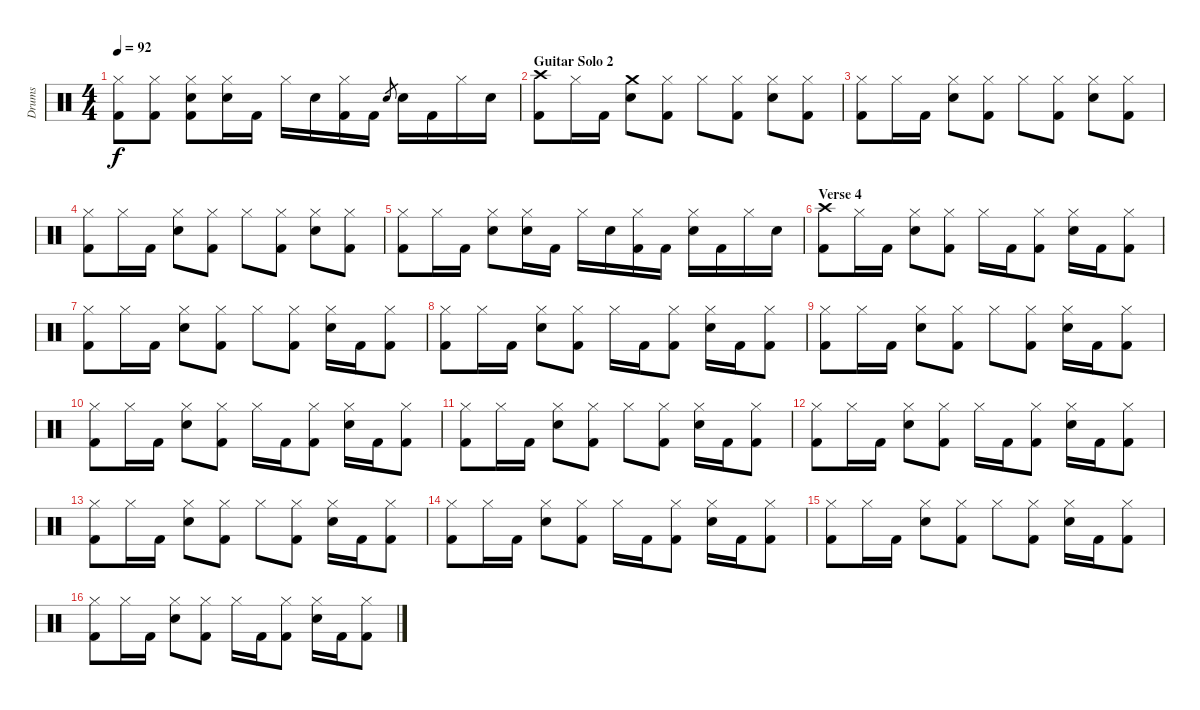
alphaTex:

\track ("Drums" "Drums") {instrument percussion}
\staff {score}
\articulation defaults
\ts (4 4)
\tempo 92
\clef neutral
\ks c
("Hi-Hat (closed)" "Kick (hit) 2").8{dy f} ("Hi-Hat (closed)" "Kick (hit) 2").8 ("Hi-Hat (closed)" "Electric Snare (hit)" "Kick (hit) 2").8 ("Hi-Hat (closed)" "Electric Snare (hit)").16 "Kick (hit) 2".16 "Hi-Hat (closed)".16 "Electric Snare (hit)".16 ("Hi-Hat (closed)" "Kick (hit) 2").16 "Kick (hit) 2".16 "Electric Snare (hit)".8{gr} "Electric Snare (hit)".16 "Kick (hit) 2".16 "Hi-Hat (closed)".16 "Electric Snare (hit)".16 |
\section ("" "Guitar Solo 2")
("Crash high (hit)" "Kick (hit) 2").8 "Hi-Hat (closed)".16 "Kick (hit) 2".16 ("Crash medium (hit)" "Electric Snare (hit)").8 ("Hi-Hat (closed)" "Kick (hit) 2").8 "Hi-Hat (closed)".8 ("Hi-Hat (closed)" "Kick (hit) 2").8 ("Hi-Hat (closed)" "Electric Snare (hit)").8 ("Hi-Hat (closed)" "Kick (hit) 2").8 |
("Hi-Hat (closed)" "Kick (hit) 2").8 "Hi-Hat (closed)".16 "Kick (hit) 2".16 ("Hi-Hat (closed)" "Electric Snare (hit)").8 ("Hi-Hat (closed)" "Kick (hit) 2").8 "Hi-Hat (closed)".8 ("Hi-Hat (closed)" "Kick (hit) 2").8 ("Hi-Hat (closed)" "Electric Snare (hit)").8 ("Hi-Hat (closed)" "Kick (hit) 2").8 |
("Hi-Hat (closed)" "Kick (hit) 2").8 "Hi-Hat (closed)".16 "Kick (hit) 2".16 ("Hi-Hat (closed)" "Electric Snare (hit)").8 ("Hi-Hat (closed)" "Kick (hit) 2").8 "Hi-Hat (closed)".8 ("Hi-Hat (closed)" "Kick (hit) 2").8 ("Hi-Hat (closed)" "Electric Snare (hit)").8 ("Hi-Hat (closed)" "Kick (hit) 2").8 |
("Hi-Hat (closed)" "Kick (hit) 2").8 "Hi-Hat (closed)".16 "Kick (hit) 2".16 ("Hi-Hat (closed)" "Electric Snare (hit)").8 ("Hi-Hat (closed)" "Electric Snare (hit)").16 "Kick (hit) 2".16 "Hi-Hat (closed)".16 "Electric Snare (hit)".16 ("Hi-Hat (closed)" "Kick (hit) 2").16 "Kick (hit) 2".16 ("Hi-Hat (closed)" "Electric Snare (hit)").16 "Kick (hit) 2".16 "Hi-Hat (closed)".16 "Electric Snare (hit)".16 |
\section ("" "Verse 4")
("Crash high (hit)" "Kick (hit) 2").8 "Hi-Hat (closed)".16 "Kick (hit) 2".16 ("Hi-Hat (closed)" "Electric Snare (hit)").8 ("Hi-Hat (closed)" "Kick (hit) 2").8 "Hi-Hat (closed)".16 "Kick (hit) 2".16 ("Hi-Hat (closed)" "Kick (hit) 2").8 ("Hi-Hat (closed)" "Electric Snare (hit)").16 "Kick (hit) 2".16 ("Hi-Hat (closed)" "Kick (hit) 2").8 |
("Hi-Hat (closed)" "Kick (hit) 2").8 "Hi-Hat (closed)".16 "Kick (hit) 2".16 ("Hi-Hat (closed)" "Electric Snare (hit)").8 ("Hi-Hat (closed)" "Kick (hit) 2").8 "Hi-Hat (closed)".8 ("Hi-Hat (closed)" "Kick (hit) 2").8 ("Hi-Hat (closed)" "Electric Snare (hit)").16 "Kick (hit) 2".16 ("Hi-Hat (closed)" "Kick (hit) 2").8 |
("Hi-Hat (closed)" "Kick (hit) 2").8 "Hi-Hat (closed)".16 "Kick (hit) 2".16 ("Hi-Hat (closed)" "Electric Snare (hit)").8 ("Hi-Hat (closed)" "Kick (hit) 2").8 "Hi-Hat (closed)".16 "Kick (hit) 2".16 ("Hi-Hat (closed)" "Kick (hit) 2").8 ("Hi-Hat (closed)" "Electric Snare (hit)").16 "Kick (hit) 2".16 ("Hi-Hat (closed)" "Kick (hit) 2").8 |
("Hi-Hat (closed)" "Kick (hit) 2").8 "Hi-Hat (closed)".16 "Kick (hit) 2".16 ("Hi-Hat (closed)" "Electric Snare (hit)").8 ("Hi-Hat (closed)" "Kick (hit) 2").8 "Hi-Hat (closed)".8 ("Hi-Hat (closed)" "Kick (hit) 2").8 ("Hi-Hat (closed)" "Electric Snare (hit)").16 "Kick (hit) 2".16 ("Hi-Hat (closed)" "Kick (hit) 2").8 |
("Hi-Hat (closed)" "Kick (hit) 2").8 "Hi-Hat (closed)".16 "Kick (hit) 2".16 ("Hi-Hat (closed)" "Electric Snare (hit)").8 ("Hi-Hat (closed)" "Kick (hit) 2").8 "Hi-Hat (closed)".16 "Kick (hit) 2".16 ("Hi-Hat (closed)" "Kick (hit) 2").8 ("Hi-Hat (closed)" "Electric Snare (hit)").16 "Kick (hit) 2".16 ("Hi-Hat (closed)" "Kick (hit) 2").8 |
("Hi-Hat (closed)" "Kick (hit) 2").8 "Hi-Hat (closed)".16 "Kick (hit) 2".16 ("Hi-Hat (closed)" "Electric Snare (hit)").8 ("Hi-Hat (closed)" "Kick (hit) 2").8 "Hi-Hat (closed)".8 ("Hi-Hat (closed)" "Kick (hit) 2").8 ("Hi-Hat (closed)" "Electric Snare (hit)").16 "Kick (hit) 2".16 ("Hi-Hat (closed)" "Kick (hit) 2").8 |
("Hi-Hat (closed)" "Kick (hit) 2").8 "Hi-Hat (closed)".16 "Kick (hit) 2".16 ("Hi-Hat (closed)" "Electric Snare (hit)").8 ("Hi-Hat (closed)" "Kick (hit) 2").8 "Hi-Hat (closed)".16 "Kick (hit) 2".16 ("Hi-Hat (closed)" "Kick (hit) 2").8 ("Hi-Hat (closed)" "Electric Snare (hit)").16 "Kick (hit) 2".16 ("Hi-Hat (closed)" "Kick (hit) 2").8 |
("Hi-Hat (closed)" "Kick (hit) 2").8 "Hi-Hat (closed)".16 "Kick (hit) 2".16 ("Hi-Hat (closed)" "Electric Snare (hit)").8 ("Hi-Hat (closed)" "Kick (hit) 2").8 "Hi-Hat (closed)".8 ("Hi-Hat (closed)" "Kick (hit) 2").8 ("Hi-Hat (closed)" "Electric Snare (hit)").16 "Kick (hit) 2".16 ("Hi-Hat (closed)" "Kick (hit) 2").8 |
("Hi-Hat (closed)" "Kick (hit) 2").8 "Hi-Hat (closed)".16 "Kick (hit) 2".16 ("Hi-Hat (closed)" "Electric Snare (hit)").8 ("Hi-Hat (closed)" "Kick (hit) 2").8 "Hi-Hat (closed)".16 "Kick (hit) 2".16 ("Hi-Hat (closed)" "Kick (hit) 2").8 ("Hi-Hat (closed)" "Electric Snare (hit)").16 "Kick (hit) 2".16 ("Hi-Hat (closed)" "Kick (hit) 2").8 |
("Hi-Hat (closed)" "Kick (hit) 2").8 "Hi-Hat (closed)".16 "Kick (hit) 2".16 ("Hi-Hat (closed)" "Electric Snare (hit)").8 ("Hi-Hat (closed)" "Kick (hit) 2").8 "Hi-Hat (closed)".8 ("Hi-Hat (closed)" "Kick (hit) 2").8 ("Hi-Hat (closed)" "Electric Snare (hit)").16 "Kick (hit) 2".16 ("Hi-Hat (closed)" "Kick (hit) 2").8 |
("Hi-Hat (closed)" "Kick (hit) 2").8 "Hi-Hat (closed)".16 "Kick (hit) 2".16 ("Hi-Hat (closed)" "Electric Snare (hit)").8 ("Hi-Hat (closed)" "Kick (hit) 2").8 "Hi-Hat (closed)".16 "Kick (hit) 2".16 ("Hi-Hat (closed)" "Kick (hit) 2").8 ("Hi-Hat (closed)" "Electric Snare (hit)").16 "Kick (hit) 2".16 ("Hi-Hat (closed)" "Kick (hit) 2").8
